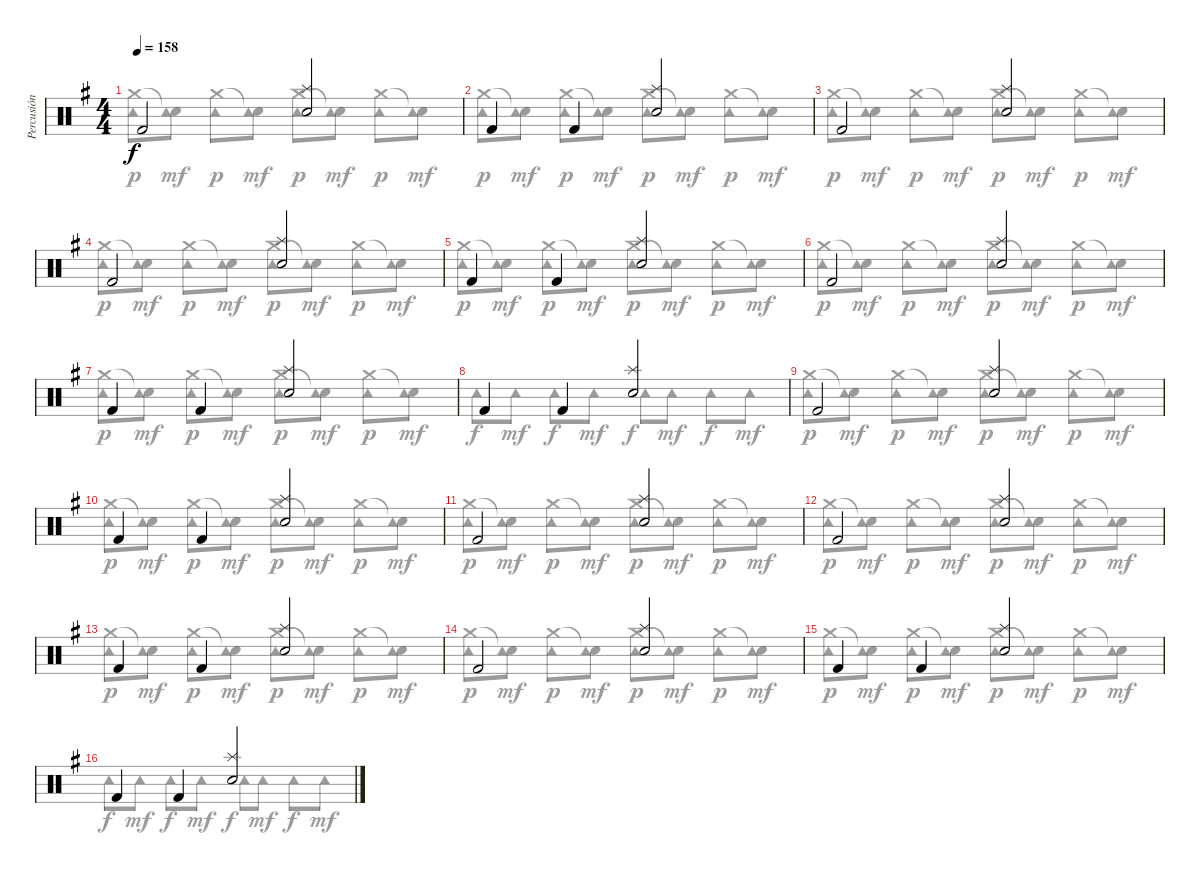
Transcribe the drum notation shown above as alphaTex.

\track ("Percusión" "Percusión") {instrument percussion}
\staff {score}
\articulation defaults
\voice
\ts (4 4)
\tempo 158
\clef neutral
\ks g "Kick (hit) 2".2{dy f}
("Splash (hit)" "Snare (hit) 2").2 |
"Kick (hit) 2".4 "Kick (hit) 2".4 ("Splash (hit)" "Snare (hit) 2").2 |
"Kick (hit) 2".2 ("Splash (hit)" "Snare (hit) 2").2 |
"Kick (hit) 2".2 ("Splash (hit)" "Snare (hit) 2").2 |
"Kick (hit) 2".4 "Kick (hit) 2".4 ("Splash (hit)" "Snare (hit) 2").2 |
"Kick (hit) 2".2 ("Splash (hit)" "Snare (hit) 2").2 |
"Kick (hit) 2".4 "Kick (hit) 2".4 ("Splash (hit)" "Snare (hit) 2").2 |
"Kick (hit) 2".4 "Kick (hit) 2".4 ("Splash (hit)" "Snare (hit) 2").2 |
"Kick (hit) 2".2 ("Splash (hit)" "Snare (hit) 2").2 |
"Kick (hit) 2".4 "Kick (hit) 2".4 ("Splash (hit)" "Snare (hit) 2").2 |
"Kick (hit) 2".2 ("Splash (hit)" "Snare (hit) 2").2 |
"Kick (hit) 2".2 ("Splash (hit)" "Snare (hit) 2").2 |
"Kick (hit) 2".4 "Kick (hit) 2".4 ("Splash (hit)" "Snare (hit) 2").2 |
"Kick (hit) 2".2 ("Splash (hit)" "Snare (hit) 2").2 |
"Kick (hit) 2".4 "Kick (hit) 2".4 ("Splash (hit)" "Snare (hit) 2").2 |
"Kick (hit) 2".4 "Kick (hit) 2".4 ("Splash (hit)" "Snare (hit) 2").2
\voice
\clef neutral
\ottava regular
\simile none
\ks g
("Crash medium (hit)" "Tambourine (hit)").8{dy p} ("Snare (hit)"{t} "Tambourine (hit)").8{dy mf} ("Crash medium (hit)" "Tambourine (hit)").8{dy p} ("Snare (hit)"{t} "Tambourine (hit)").8{dy mf} ("Crash medium (hit)" "Tambourine (hit)").8{dy p} ("Snare (hit)"{t} "Tambourine (hit)").8{dy mf} ("Crash medium (hit)" "Tambourine (hit)").8{dy p} ("Snare (hit)"{t} "Tambourine (hit)").8{dy mf} |
("Crash medium (hit)" "Tambourine (hit)").8{dy p} ("Snare (hit)"{t} "Tambourine (hit)").8{dy mf} ("Crash medium (hit)" "Tambourine (hit)").8{dy p} ("Snare (hit)"{t} "Tambourine (hit)").8{dy mf} ("Crash medium (hit)" "Tambourine (hit)").8{dy p} ("Snare (hit)"{t} "Tambourine (hit)").8{dy mf} ("Crash medium (hit)" "Tambourine (hit)").8{dy p} ("Snare (hit)"{t} "Tambourine (hit)").8{dy mf} |
("Crash medium (hit)" "Tambourine (hit)").8{dy p} ("Snare (hit)"{t} "Tambourine (hit)").8{dy mf} ("Crash medium (hit)" "Tambourine (hit)").8{dy p} ("Snare (hit)"{t} "Tambourine (hit)").8{dy mf} ("Crash medium (hit)" "Tambourine (hit)").8{dy p} ("Snare (hit)"{t} "Tambourine (hit)").8{dy mf} ("Crash medium (hit)" "Tambourine (hit)").8{dy p} ("Snare (hit)"{t} "Tambourine (hit)").8{dy mf} |
("Crash medium (hit)" "Tambourine (hit)").8{dy p} ("Snare (hit)"{t} "Tambourine (hit)").8{dy mf} ("Crash medium (hit)" "Tambourine (hit)").8{dy p} ("Snare (hit)"{t} "Tambourine (hit)").8{dy mf} ("Crash medium (hit)" "Tambourine (hit)").8{dy p} ("Snare (hit)"{t} "Tambourine (hit)").8{dy mf} ("Crash medium (hit)" "Tambourine (hit)").8{dy p} ("Snare (hit)"{t} "Tambourine (hit)").8{dy mf} |
("Crash medium (hit)" "Tambourine (hit)").8{dy p} ("Snare (hit)"{t} "Tambourine (hit)").8{dy mf} ("Crash medium (hit)" "Tambourine (hit)").8{dy p} ("Snare (hit)"{t} "Tambourine (hit)").8{dy mf} ("Crash medium (hit)" "Tambourine (hit)").8{dy p} ("Snare (hit)"{t} "Tambourine (hit)").8{dy mf} ("Crash medium (hit)" "Tambourine (hit)").8{dy p} ("Snare (hit)"{t} "Tambourine (hit)").8{dy mf} |
("Crash medium (hit)" "Tambourine (hit)").8{dy p} ("Snare (hit)"{t} "Tambourine (hit)").8{dy mf} ("Crash medium (hit)" "Tambourine (hit)").8{dy p} ("Snare (hit)"{t} "Tambourine (hit)").8{dy mf} ("Crash medium (hit)" "Tambourine (hit)").8{dy p} ("Snare (hit)"{t} "Tambourine (hit)").8{dy mf} ("Crash medium (hit)" "Tambourine (hit)").8{dy p} ("Snare (hit)"{t} "Tambourine (hit)").8{dy mf} |
("Crash medium (hit)" "Tambourine (hit)").8{dy p} ("Snare (hit)"{t} "Tambourine (hit)").8{dy mf} ("Crash medium (hit)" "Tambourine (hit)").8{dy p} ("Snare (hit)"{t} "Tambourine (hit)").8{dy mf} ("Crash medium (hit)" "Tambourine (hit)").8{dy p} ("Snare (hit)"{t} "Tambourine (hit)").8{dy mf} ("Crash medium (hit)" "Tambourine (hit)").8{dy p} ("Snare (hit)"{t} "Tambourine (hit)").8{dy mf} |
"Tambourine (hit)".8{dy f} "Tambourine (hit)".8{dy mf} "Tambourine (hit)".8{dy f} "Tambourine (hit)".8{dy mf} "Tambourine (hit)".8{dy f} "Tambourine (hit)".8{dy mf} "Tambourine (hit)".8{dy f} "Tambourine (hit)".8{dy mf} |
("Crash medium (hit)" "Tambourine (hit)").8{dy p} ("Snare (hit)"{t} "Tambourine (hit)").8{dy mf} ("Crash medium (hit)" "Tambourine (hit)").8{dy p} ("Snare (hit)"{t} "Tambourine (hit)").8{dy mf} ("Crash medium (hit)" "Tambourine (hit)").8{dy p} ("Snare (hit)"{t} "Tambourine (hit)").8{dy mf} ("Crash medium (hit)" "Tambourine (hit)").8{dy p} ("Snare (hit)"{t} "Tambourine (hit)").8{dy mf} |
("Crash medium (hit)" "Tambourine (hit)").8{dy p} ("Snare (hit)"{t} "Tambourine (hit)").8{dy mf} ("Crash medium (hit)" "Tambourine (hit)").8{dy p} ("Snare (hit)"{t} "Tambourine (hit)").8{dy mf} ("Crash medium (hit)" "Tambourine (hit)").8{dy p} ("Snare (hit)"{t} "Tambourine (hit)").8{dy mf} ("Crash medium (hit)" "Tambourine (hit)").8{dy p} ("Snare (hit)"{t} "Tambourine (hit)").8{dy mf} |
("Crash medium (hit)" "Tambourine (hit)").8{dy p} ("Snare (hit)"{t} "Tambourine (hit)").8{dy mf} ("Crash medium (hit)" "Tambourine (hit)").8{dy p} ("Snare (hit)"{t} "Tambourine (hit)").8{dy mf} ("Crash medium (hit)" "Tambourine (hit)").8{dy p} ("Snare (hit)"{t} "Tambourine (hit)").8{dy mf} ("Crash medium (hit)" "Tambourine (hit)").8{dy p} ("Snare (hit)"{t} "Tambourine (hit)").8{dy mf} |
("Crash medium (hit)" "Tambourine (hit)").8{dy p} ("Snare (hit)"{t} "Tambourine (hit)").8{dy mf} ("Crash medium (hit)" "Tambourine (hit)").8{dy p} ("Snare (hit)"{t} "Tambourine (hit)").8{dy mf} ("Crash medium (hit)" "Tambourine (hit)").8{dy p} ("Snare (hit)"{t} "Tambourine (hit)").8{dy mf} ("Crash medium (hit)" "Tambourine (hit)").8{dy p} ("Snare (hit)"{t} "Tambourine (hit)").8{dy mf} |
("Crash medium (hit)" "Tambourine (hit)").8{dy p} ("Snare (hit)"{t} "Tambourine (hit)").8{dy mf} ("Crash medium (hit)" "Tambourine (hit)").8{dy p} ("Snare (hit)"{t} "Tambourine (hit)").8{dy mf} ("Crash medium (hit)" "Tambourine (hit)").8{dy p} ("Snare (hit)"{t} "Tambourine (hit)").8{dy mf} ("Crash medium (hit)" "Tambourine (hit)").8{dy p} ("Snare (hit)"{t} "Tambourine (hit)").8{dy mf} |
("Crash medium (hit)" "Tambourine (hit)").8{dy p} ("Snare (hit)"{t} "Tambourine (hit)").8{dy mf} ("Crash medium (hit)" "Tambourine (hit)").8{dy p} ("Snare (hit)"{t} "Tambourine (hit)").8{dy mf} ("Crash medium (hit)" "Tambourine (hit)").8{dy p} ("Snare (hit)"{t} "Tambourine (hit)").8{dy mf} ("Crash medium (hit)" "Tambourine (hit)").8{dy p} ("Snare (hit)"{t} "Tambourine (hit)").8{dy mf} |
("Crash medium (hit)" "Tambourine (hit)").8{dy p} ("Snare (hit)"{t} "Tambourine (hit)").8{dy mf} ("Crash medium (hit)" "Tambourine (hit)").8{dy p} ("Snare (hit)"{t} "Tambourine (hit)").8{dy mf} ("Crash medium (hit)" "Tambourine (hit)").8{dy p} ("Snare (hit)"{t} "Tambourine (hit)").8{dy mf} ("Crash medium (hit)" "Tambourine (hit)").8{dy p} ("Snare (hit)"{t} "Tambourine (hit)").8{dy mf} |
"Tambourine (hit)".8{dy f} "Tambourine (hit)".8{dy mf} "Tambourine (hit)".8{dy f} "Tambourine (hit)".8{dy mf} "Tambourine (hit)".8{dy f} "Tambourine (hit)".8{dy mf} "Tambourine (hit)".8{dy f} "Tambourine (hit)".8{dy mf}
